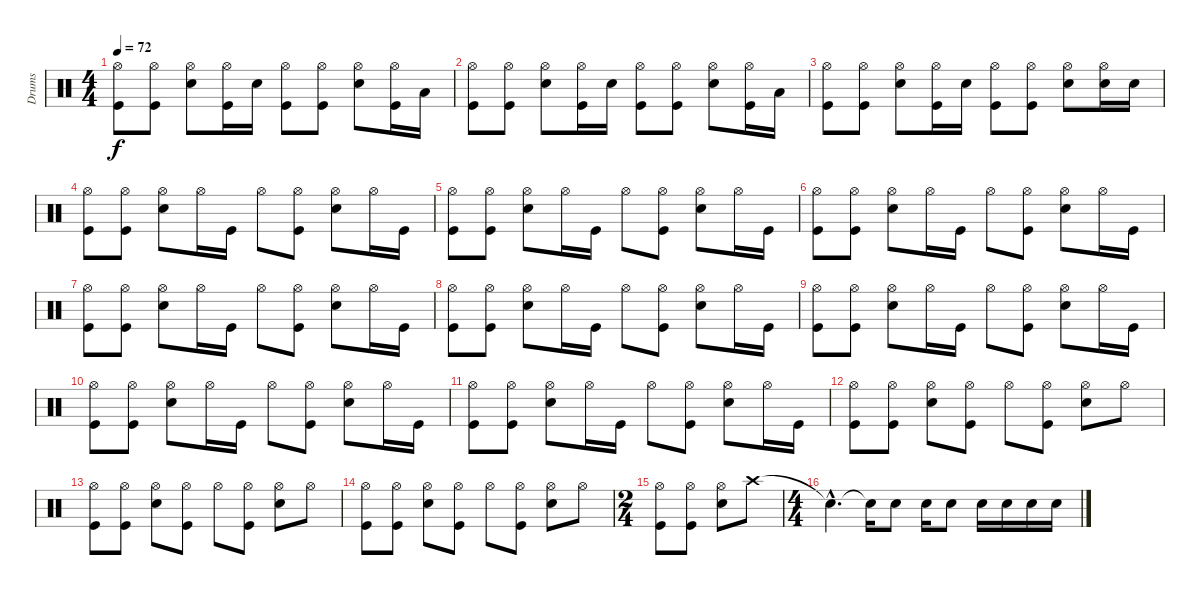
\track ("Drums" "Drums") {instrument percussion}
\staff {score}
\articulation defaults
\ts (4 4)
\tempo 72
\clef neutral
\ks c
("Kick (hit)" "Hi-Hat (open)").8{dy f} ("Kick (hit)" "Hi-Hat (open)").8 ("Snare (hit) 2" "Hi-Hat (open)").8 ("Hi-Hat (open)" "Kick (hit)").16 "Snare (hit) 2".16 ("Kick (hit)" "Hi-Hat (open)").8 ("Kick (hit)" "Hi-Hat (open)").8 ("Snare (hit) 2" "Hi-Hat (open)").8 ("Kick (hit)" "Hi-Hat (open)").16 "Low Tom (hit)".16 |
("Kick (hit)" "Hi-Hat (open)").8 ("Kick (hit)" "Hi-Hat (open)").8 ("Snare (hit) 2" "Hi-Hat (open)").8 ("Hi-Hat (open)" "Kick (hit)").16 "Snare (hit) 2".16 ("Kick (hit)" "Hi-Hat (open)").8 ("Kick (hit)" "Hi-Hat (open)").8 ("Snare (hit) 2" "Hi-Hat (open)").8 ("Kick (hit)" "Hi-Hat (open)").16 "Low Tom (hit)".16 |
("Kick (hit)" "Hi-Hat (open)").8 ("Kick (hit)" "Hi-Hat (open)").8 ("Snare (hit) 2" "Hi-Hat (open)").8 ("Hi-Hat (open)" "Kick (hit)").16 "Snare (hit) 2".16 ("Kick (hit)" "Hi-Hat (open)").8 ("Kick (hit)" "Hi-Hat (open)").8 ("Snare (hit) 2" "Hi-Hat (open)").8 ("Hi-Hat (open)" "Snare (hit) 2").16 "Snare (hit) 2".16 |
("Kick (hit)" "Hi-Hat (open)").8 ("Kick (hit)" "Hi-Hat (open)").8 ("Snare (hit) 2" "Hi-Hat (open)").8 "Hi-Hat (open)".16 "Kick (hit)".16 "Hi-Hat (open)".8 ("Hi-Hat (open)" "Kick (hit)").8 ("Snare (hit) 2" "Hi-Hat (open)").8 "Hi-Hat (open)".16 "Kick (hit)".16 |
("Kick (hit)" "Hi-Hat (open)").8 ("Kick (hit)" "Hi-Hat (open)").8 ("Snare (hit) 2" "Hi-Hat (open)").8 "Hi-Hat (open)".16 "Kick (hit)".16 "Hi-Hat (open)".8 ("Hi-Hat (open)" "Kick (hit)").8 ("Snare (hit) 2" "Hi-Hat (open)").8 "Hi-Hat (open)".16 "Kick (hit)".16 |
("Kick (hit)" "Hi-Hat (open)").8 ("Kick (hit)" "Hi-Hat (open)").8 ("Snare (hit) 2" "Hi-Hat (open)").8 "Hi-Hat (open)".16 "Kick (hit)".16 "Hi-Hat (open)".8 ("Hi-Hat (open)" "Kick (hit)").8 ("Snare (hit) 2" "Hi-Hat (open)").8 "Hi-Hat (open)".16 "Kick (hit)".16 |
("Kick (hit)" "Hi-Hat (open)").8 ("Kick (hit)" "Hi-Hat (open)").8 ("Snare (hit) 2" "Hi-Hat (open)").8 "Hi-Hat (open)".16 "Kick (hit)".16 "Hi-Hat (open)".8 ("Hi-Hat (open)" "Kick (hit)").8 ("Snare (hit) 2" "Hi-Hat (open)").8 "Hi-Hat (open)".16 "Kick (hit)".16 |
("Kick (hit)" "Hi-Hat (open)").8 ("Kick (hit)" "Hi-Hat (open)").8 ("Snare (hit) 2" "Hi-Hat (open)").8 "Hi-Hat (open)".16 "Kick (hit)".16 "Hi-Hat (open)".8 ("Hi-Hat (open)" "Kick (hit)").8 ("Snare (hit) 2" "Hi-Hat (open)").8 "Hi-Hat (open)".16 "Kick (hit)".16 |
("Kick (hit)" "Hi-Hat (open)").8 ("Kick (hit)" "Hi-Hat (open)").8 ("Snare (hit) 2" "Hi-Hat (open)").8 "Hi-Hat (open)".16 "Kick (hit)".16 "Hi-Hat (open)".8 ("Hi-Hat (open)" "Kick (hit)").8 ("Snare (hit) 2" "Hi-Hat (open)").8 "Hi-Hat (open)".16 "Kick (hit)".16 |
("Kick (hit)" "Hi-Hat (open)").8 ("Kick (hit)" "Hi-Hat (open)").8 ("Snare (hit) 2" "Hi-Hat (open)").8 "Hi-Hat (open)".16 "Kick (hit)".16 "Hi-Hat (open)".8 ("Hi-Hat (open)" "Kick (hit)").8 ("Snare (hit) 2" "Hi-Hat (open)").8 "Hi-Hat (open)".16 "Kick (hit)".16 |
("Kick (hit)" "Hi-Hat (open)").8 ("Kick (hit)" "Hi-Hat (open)").8 ("Snare (hit) 2" "Hi-Hat (open)").8 "Hi-Hat (open)".16 "Kick (hit)".16 "Hi-Hat (open)".8 ("Hi-Hat (open)" "Kick (hit)").8 ("Snare (hit) 2" "Hi-Hat (open)").8 "Hi-Hat (open)".16 "Kick (hit)".16 |
("Kick (hit)" "Hi-Hat (open)").8 ("Kick (hit)" "Hi-Hat (open)").8 ("Snare (hit) 2" "Hi-Hat (open)").8 ("Kick (hit)" "Hi-Hat (open)").8 "Hi-Hat (open)".8 ("Kick (hit)" "Hi-Hat (open)").8 ("Snare (hit) 2" "Hi-Hat (open)").8 "Hi-Hat (open)".8 |
("Kick (hit)" "Hi-Hat (open)").8 ("Kick (hit)" "Hi-Hat (open)").8 ("Snare (hit) 2" "Hi-Hat (open)").8 ("Kick (hit)" "Hi-Hat (open)").8 "Hi-Hat (open)".8 ("Kick (hit)" "Hi-Hat (open)").8 ("Snare (hit) 2" "Hi-Hat (open)").8 "Hi-Hat (open)".8 |
("Kick (hit)" "Hi-Hat (open)").8 ("Kick (hit)" "Hi-Hat (open)").8 ("Snare (hit) 2" "Hi-Hat (open)").8 ("Kick (hit)" "Hi-Hat (open)").8 "Hi-Hat (open)".8 ("Kick (hit)" "Hi-Hat (open)").8 ("Snare (hit) 2" "Hi-Hat (open)").8 "Hi-Hat (open)".8 |
\ts (2 4)
("Kick (hit)" "Hi-Hat (open)").8 ("Kick (hit)" "Hi-Hat (open)").8 ("Snare (hit) 2" "Hi-Hat (open)").8 "Crash high (hit)".8 |
\ts (4 4)
"Snare (hit)"{hac t}.4{d} "Snare (hit)"{t}.16 "Snare (hit) 2".8 "Snare (hit) 2".16 "Snare (hit) 2".8 "Snare (hit) 2".16 "Snare (hit) 2".16 "Snare (hit) 2".16 "Snare (hit) 2".16
